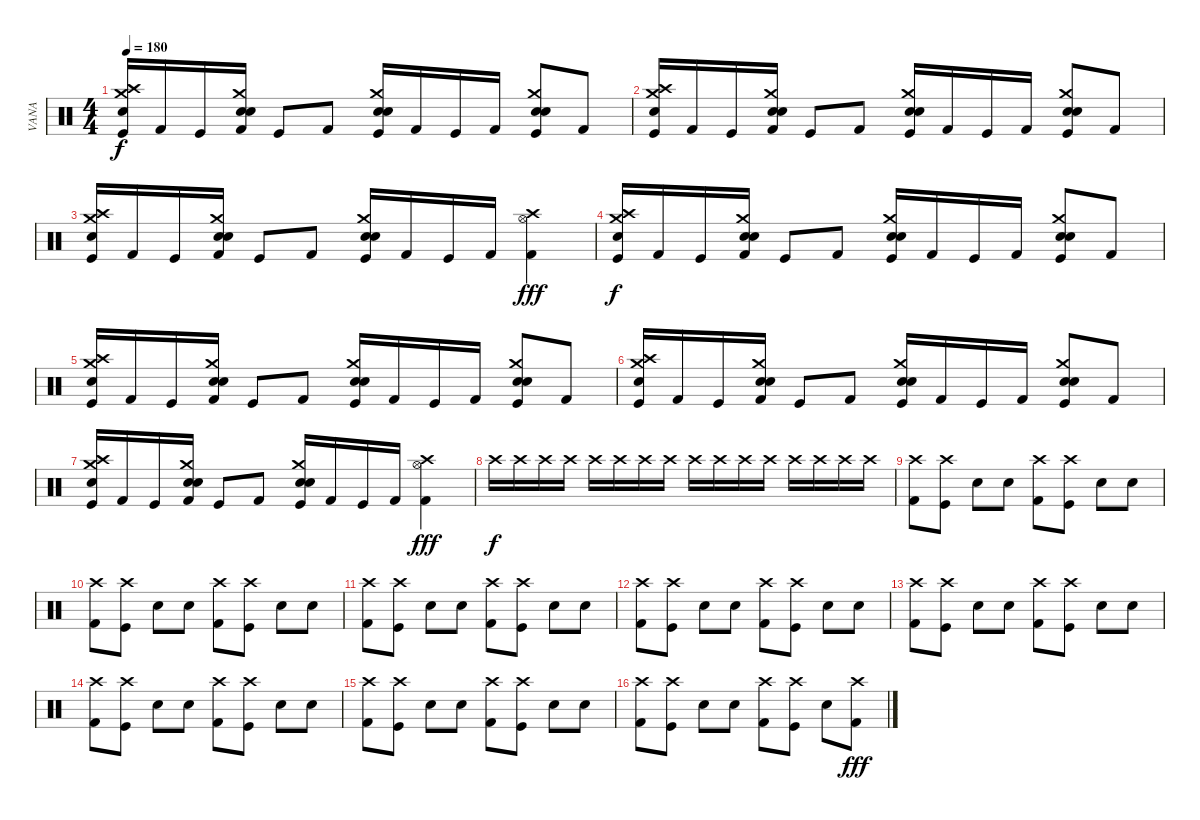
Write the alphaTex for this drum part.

\track ("VANA" "VANA") {instrument percussion}
\staff {score}
\articulation defaults
\ts (4 4)
\tempo 180
\clef neutral
\ks c
("Snare (hit) 2" "Crash medium (hit)" "Crash high (hit)" "Kick (hit)").16{dy f} "Kick (hit) 2".16 "Kick (hit)".16 ("Snare (hit) 2" "Crash medium (hit)" "Electric Snare (hit)" "Kick (hit) 2").16 "Kick (hit)".8 "Kick (hit) 2".8 ("Snare (hit) 2" "Crash medium (hit)" "Electric Snare (hit)" "Kick (hit)").16 "Kick (hit) 2".16 "Kick (hit)".16 "Kick (hit) 2".16 ("Snare (hit) 2" "Crash medium (hit)" "Electric Snare (hit)" "Kick (hit)").8 "Kick (hit) 2".8 |
("Snare (hit) 2" "Crash medium (hit)" "Crash high (hit)" "Kick (hit)").16 "Kick (hit) 2".16 "Kick (hit)".16 ("Snare (hit) 2" "Crash medium (hit)" "Electric Snare (hit)" "Kick (hit) 2").16 "Kick (hit)".8 "Kick (hit) 2".8 ("Snare (hit) 2" "Crash medium (hit)" "Electric Snare (hit)" "Kick (hit)").16 "Kick (hit) 2".16 "Kick (hit)".16 "Kick (hit) 2".16 ("Snare (hit) 2" "Crash medium (hit)" "Electric Snare (hit)" "Kick (hit)").8 "Kick (hit) 2".8 |
("Snare (hit) 2" "Crash medium (hit)" "Crash high (hit)" "Kick (hit)").16 "Kick (hit) 2".16 "Kick (hit)".16 ("Snare (hit) 2" "Crash medium (hit)" "Electric Snare (hit)" "Kick (hit) 2").16 "Kick (hit)".8 "Kick (hit) 2".8 ("Snare (hit) 2" "Crash medium (hit)" "Electric Snare (hit)" "Kick (hit)").16 "Kick (hit) 2".16 "Kick (hit)".16 "Kick (hit) 2".16 ("Hi-Hat (open)" "Crash high (hit)" "Kick (hit) 2").4{dy fff} |
("Snare (hit) 2" "Crash medium (hit)" "Crash high (hit)" "Kick (hit)").16{dy f} "Kick (hit) 2".16 "Kick (hit)".16 ("Snare (hit) 2" "Crash medium (hit)" "Electric Snare (hit)" "Kick (hit) 2").16 "Kick (hit)".8 "Kick (hit) 2".8 ("Snare (hit) 2" "Crash medium (hit)" "Electric Snare (hit)" "Kick (hit)").16 "Kick (hit) 2".16 "Kick (hit)".16 "Kick (hit) 2".16 ("Snare (hit) 2" "Crash medium (hit)" "Electric Snare (hit)" "Kick (hit)").8 "Kick (hit) 2".8 |
("Snare (hit) 2" "Crash medium (hit)" "Crash high (hit)" "Kick (hit)").16 "Kick (hit) 2".16 "Kick (hit)".16 ("Snare (hit) 2" "Crash medium (hit)" "Electric Snare (hit)" "Kick (hit) 2").16 "Kick (hit)".8 "Kick (hit) 2".8 ("Snare (hit) 2" "Crash medium (hit)" "Electric Snare (hit)" "Kick (hit)").16 "Kick (hit) 2".16 "Kick (hit)".16 "Kick (hit) 2".16 ("Snare (hit) 2" "Crash medium (hit)" "Electric Snare (hit)" "Kick (hit)").8 "Kick (hit) 2".8 |
("Snare (hit) 2" "Crash medium (hit)" "Crash high (hit)" "Kick (hit)").16 "Kick (hit) 2".16 "Kick (hit)".16 ("Snare (hit) 2" "Crash medium (hit)" "Electric Snare (hit)" "Kick (hit) 2").16 "Kick (hit)".8 "Kick (hit) 2".8 ("Snare (hit) 2" "Crash medium (hit)" "Electric Snare (hit)" "Kick (hit)").16 "Kick (hit) 2".16 "Kick (hit)".16 "Kick (hit) 2".16 ("Snare (hit) 2" "Crash medium (hit)" "Electric Snare (hit)" "Kick (hit)").8 "Kick (hit) 2".8 |
("Snare (hit) 2" "Crash medium (hit)" "Crash high (hit)" "Kick (hit)").16 "Kick (hit) 2".16 "Kick (hit)".16 ("Snare (hit) 2" "Crash medium (hit)" "Electric Snare (hit)" "Kick (hit) 2").16 "Kick (hit)".8 "Kick (hit) 2".8 ("Snare (hit) 2" "Crash medium (hit)" "Electric Snare (hit)" "Kick (hit)").16 "Kick (hit) 2".16 "Kick (hit)".16 "Kick (hit) 2".16 ("Hi-Hat (open)" "Crash high (hit)" "Kick (hit) 2").4{dy fff} |
"Crash high (hit)".16{dy f} "Crash high (hit)".16 "Crash high (hit)".16 "Crash high (hit)".16 "Crash high (hit)".16 "Crash high (hit)".16 "Crash high (hit)".16 "Crash high (hit)".16 "Crash high (hit)".16 "Crash high (hit)".16 "Crash high (hit)".16 "Crash high (hit)".16 "Crash high (hit)".16 "Crash high (hit)".16 "Crash high (hit)".16 "Crash high (hit)".16 |
("Crash high (hit)" "Kick (hit) 2").8 ("Crash high (hit)" "Kick (hit)").8 "Electric Snare (hit)".8 "Electric Snare (hit)".8 ("Crash high (hit)" "Kick (hit) 2").8 ("Crash high (hit)" "Kick (hit)").8 "Electric Snare (hit)".8 "Electric Snare (hit)".8 |
("Crash high (hit)" "Kick (hit) 2").8 ("Crash high (hit)" "Kick (hit)").8 "Electric Snare (hit)".8 "Electric Snare (hit)".8 ("Crash high (hit)" "Kick (hit) 2").8 ("Crash high (hit)" "Kick (hit)").8 "Electric Snare (hit)".8 "Electric Snare (hit)".8 |
("Crash high (hit)" "Kick (hit) 2").8 ("Crash high (hit)" "Kick (hit)").8 "Electric Snare (hit)".8 "Electric Snare (hit)".8 ("Crash high (hit)" "Kick (hit) 2").8 ("Crash high (hit)" "Kick (hit)").8 "Electric Snare (hit)".8 "Electric Snare (hit)".8 |
("Crash high (hit)" "Kick (hit) 2").8 ("Crash high (hit)" "Kick (hit)").8 "Electric Snare (hit)".8 "Electric Snare (hit)".8 ("Crash high (hit)" "Kick (hit) 2").8 ("Crash high (hit)" "Kick (hit)").8 "Electric Snare (hit)".8 "Electric Snare (hit)".8 |
("Crash high (hit)" "Kick (hit) 2").8 ("Crash high (hit)" "Kick (hit)").8 "Electric Snare (hit)".8 "Electric Snare (hit)".8 ("Crash high (hit)" "Kick (hit) 2").8 ("Crash high (hit)" "Kick (hit)").8 "Electric Snare (hit)".8 "Electric Snare (hit)".8 |
("Crash high (hit)" "Kick (hit) 2").8 ("Crash high (hit)" "Kick (hit)").8 "Electric Snare (hit)".8 "Electric Snare (hit)".8 ("Crash high (hit)" "Kick (hit) 2").8 ("Crash high (hit)" "Kick (hit)").8 "Electric Snare (hit)".8 "Electric Snare (hit)".8 |
("Crash high (hit)" "Kick (hit) 2").8 ("Crash high (hit)" "Kick (hit)").8 "Electric Snare (hit)".8 "Electric Snare (hit)".8 ("Crash high (hit)" "Kick (hit) 2").8 ("Crash high (hit)" "Kick (hit)").8 "Electric Snare (hit)".8 "Electric Snare (hit)".8 |
("Crash high (hit)" "Kick (hit) 2").8 ("Crash high (hit)" "Kick (hit)").8 "Electric Snare (hit)".8 "Electric Snare (hit)".8 ("Crash high (hit)" "Kick (hit) 2").8 ("Crash high (hit)" "Kick (hit)").8 "Electric Snare (hit)".8 ("Crash high (hit)" "Kick (hit) 2").8{dy fff}
